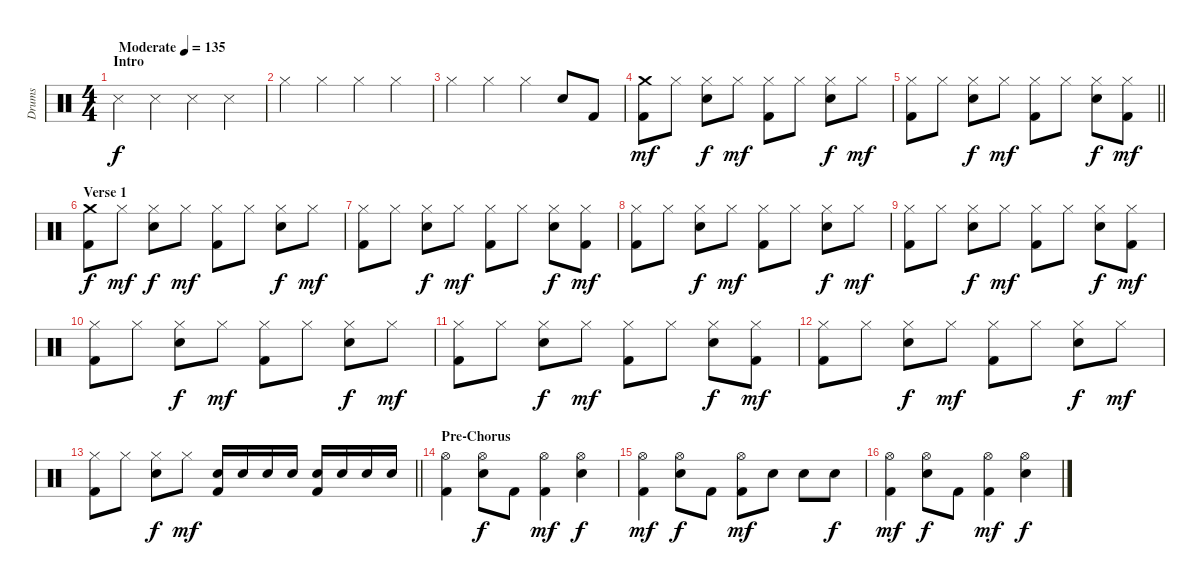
\track ("Drums" "Drums") {instrument percussion}
\staff {score}
\articulation defaults
\ts (4 4)
\section ("" "Intro")
\tempo (135 "Moderate")
\clef neutral
\ks c "Metronome (hit)".4{dy f} "Metronome (hit)".4 "Metronome (hit)".4 "Metronome (hit)".4
|
"Hi-Hat (closed)".4 "Hi-Hat (closed)".4 "Hi-Hat (closed)".4 "Hi-Hat (closed)".4 |
"Hi-Hat (closed)".4 "Hi-Hat (closed)".4 "Hi-Hat (closed)".4 "Snare (hit) 2".8 "Kick (hit) 2".8 |
("Crash medium (hit)" "Kick (hit) 2").8{dy mf} "Hi-Hat (closed)".8 ("Hi-Hat (closed)" "Snare (hit) 2").8{dy f} "Hi-Hat (closed)".8{dy mf} ("Hi-Hat (closed)" "Kick (hit) 2").8 "Hi-Hat (closed)".8 ("Hi-Hat (closed)" "Snare (hit) 2").8{dy f} "Hi-Hat (closed)".8{dy mf} |
\barLineRight lightlight
("Hi-Hat (closed)" "Kick (hit) 2").8 "Hi-Hat (closed)".8 ("Hi-Hat (closed)" "Snare (hit) 2").8{dy f} "Hi-Hat (closed)".8{dy mf} ("Hi-Hat (closed)" "Kick (hit) 2").8 "Hi-Hat (closed)".8 ("Hi-Hat (closed)" "Snare (hit) 2").8{dy f} ("Hi-Hat (closed)" "Kick (hit) 2").8{dy mf} |
\section ("" "Verse 1")
("Crash medium (hit)" "Kick (hit) 2").8{dy f} "Hi-Hat (closed)".8{dy mf} ("Hi-Hat (closed)" "Snare (hit) 2").8{dy f} "Hi-Hat (closed)".8{dy mf} ("Hi-Hat (closed)" "Kick (hit) 2").8 "Hi-Hat (closed)".8 ("Hi-Hat (closed)" "Snare (hit) 2").8{dy f} "Hi-Hat (closed)".8{dy mf} |
("Hi-Hat (closed)" "Kick (hit) 2").8 "Hi-Hat (closed)".8 ("Hi-Hat (closed)" "Snare (hit) 2").8{dy f} "Hi-Hat (closed)".8{dy mf} ("Hi-Hat (closed)" "Kick (hit) 2").8 "Hi-Hat (closed)".8 ("Hi-Hat (closed)" "Snare (hit) 2").8{dy f} ("Hi-Hat (closed)" "Kick (hit) 2").8{dy mf} |
("Hi-Hat (closed)" "Kick (hit) 2").8 "Hi-Hat (closed)".8 ("Hi-Hat (closed)" "Snare (hit) 2").8{dy f} "Hi-Hat (closed)".8{dy mf} ("Hi-Hat (closed)" "Kick (hit) 2").8 "Hi-Hat (closed)".8 ("Hi-Hat (closed)" "Snare (hit) 2").8{dy f} "Hi-Hat (closed)".8{dy mf} |
("Hi-Hat (closed)" "Kick (hit) 2").8 "Hi-Hat (closed)".8 ("Hi-Hat (closed)" "Snare (hit) 2").8{dy f} "Hi-Hat (closed)".8{dy mf} ("Hi-Hat (closed)" "Kick (hit) 2").8 "Hi-Hat (closed)".8 ("Hi-Hat (closed)" "Snare (hit) 2").8{dy f} ("Hi-Hat (closed)" "Kick (hit) 2").8{dy mf} |
("Hi-Hat (closed)" "Kick (hit) 2").8 "Hi-Hat (closed)".8 ("Hi-Hat (closed)" "Snare (hit) 2").8{dy f} "Hi-Hat (closed)".8{dy mf} ("Hi-Hat (closed)" "Kick (hit) 2").8 "Hi-Hat (closed)".8 ("Hi-Hat (closed)" "Snare (hit) 2").8{dy f} "Hi-Hat (closed)".8{dy mf} |
("Hi-Hat (closed)" "Kick (hit) 2").8 "Hi-Hat (closed)".8 ("Hi-Hat (closed)" "Snare (hit) 2").8{dy f} "Hi-Hat (closed)".8{dy mf} ("Hi-Hat (closed)" "Kick (hit) 2").8 "Hi-Hat (closed)".8 ("Hi-Hat (closed)" "Snare (hit) 2").8{dy f} ("Hi-Hat (closed)" "Kick (hit) 2").8{dy mf} |
("Hi-Hat (closed)" "Kick (hit) 2").8 "Hi-Hat (closed)".8 ("Hi-Hat (closed)" "Snare (hit) 2").8{dy f} "Hi-Hat (closed)".8{dy mf} ("Hi-Hat (closed)" "Kick (hit) 2").8 "Hi-Hat (closed)".8 ("Hi-Hat (closed)" "Snare (hit) 2").8{dy f} "Hi-Hat (closed)".8{dy mf} |
\barLineRight lightlight
("Hi-Hat (closed)" "Kick (hit) 2").8 "Hi-Hat (closed)".8 ("Hi-Hat (closed)" "Snare (hit) 2").8{dy f} "Hi-Hat (closed)".8{dy mf} ("Snare (hit) 2" "Kick (hit) 2").16 "Snare (hit) 2".16 "Snare (hit) 2".16 "Snare (hit) 2".16 ("Snare (hit) 2" "Kick (hit) 2").16 "Snare (hit) 2".16 "Snare (hit) 2".16 "Snare (hit) 2".16 |
\section ("" "Pre-Chorus")
("Hi-Hat (open)" "Kick (hit) 2").4 ("Hi-Hat (open)" "Snare (hit) 2").8{dy f} "Kick (hit) 2".8 ("Hi-Hat (open)" "Kick (hit) 2").4{dy mf} ("Hi-Hat (open)" "Snare (hit) 2").4{dy f} |
("Hi-Hat (open)" "Kick (hit) 2").4{dy mf} ("Hi-Hat (open)" "Snare (hit) 2").8{dy f} "Kick (hit) 2".8 ("Hi-Hat (open)" "Kick (hit) 2").8{dy mf} "Snare (hit) 2".8 "Snare (hit) 2".8 "Snare (hit) 2".8{dy f} |
("Hi-Hat (open)" "Kick (hit) 2").4{dy mf} ("Hi-Hat (open)" "Snare (hit) 2").8{dy f} "Kick (hit) 2".8 ("Hi-Hat (open)" "Kick (hit) 2").4{dy mf} ("Hi-Hat (open)" "Snare (hit) 2").4{dy f}
